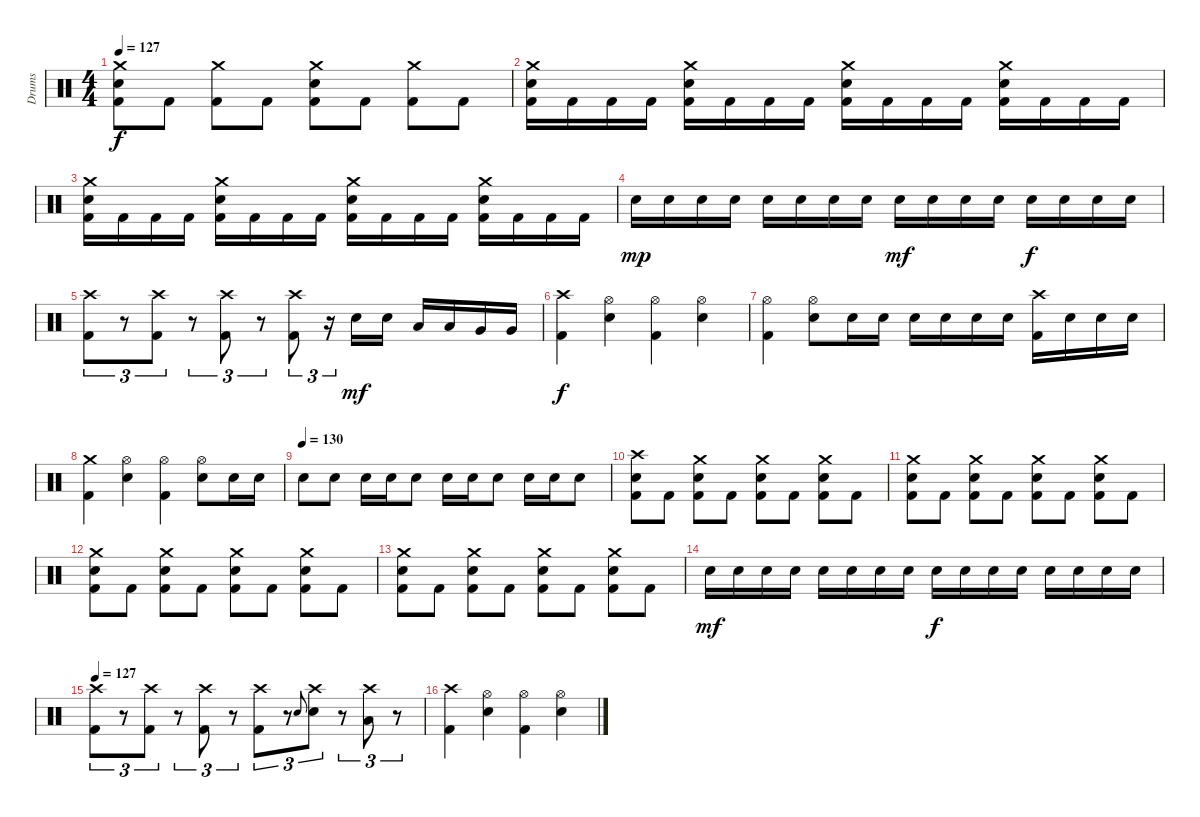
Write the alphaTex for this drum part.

\track ("Drums" "Drums") {instrument percussion}
\staff {score}
\articulation defaults
\ts (4 4)
\tempo 127
\clef neutral
\ks c
("Crash medium (hit)" "Snare (hit) 2" "Kick (hit) 2").8{dy f} "Kick (hit) 2".8 ("Crash medium (hit)" "Kick (hit) 2").8 "Kick (hit) 2".8 ("Crash medium (hit)" "Snare (hit) 2" "Kick (hit) 2").8 "Kick (hit) 2".8 ("Crash medium (hit)" "Kick (hit) 2").8 "Kick (hit) 2".8 |
("Crash medium (hit)" "Snare (hit) 2" "Kick (hit) 2").16 "Kick (hit) 2".16 "Kick (hit) 2".16 "Kick (hit) 2".16 ("Crash medium (hit)" "Snare (hit) 2" "Kick (hit) 2").16 "Kick (hit) 2".16 "Kick (hit) 2".16 "Kick (hit) 2".16 ("Crash medium (hit)" "Snare (hit) 2" "Kick (hit) 2").16 "Kick (hit) 2".16 "Kick (hit) 2".16 "Kick (hit) 2".16 ("Crash medium (hit)" "Snare (hit) 2" "Kick (hit) 2").16 "Kick (hit) 2".16 "Kick (hit) 2".16 "Kick (hit) 2".16 |
("Crash medium (hit)" "Snare (hit) 2" "Kick (hit) 2").16 "Kick (hit) 2".16 "Kick (hit) 2".16 "Kick (hit) 2".16 ("Crash medium (hit)" "Snare (hit) 2" "Kick (hit) 2").16 "Kick (hit) 2".16 "Kick (hit) 2".16 "Kick (hit) 2".16 ("Crash medium (hit)" "Snare (hit) 2" "Kick (hit) 2").16 "Kick (hit) 2".16 "Kick (hit) 2".16 "Kick (hit) 2".16 ("Crash medium (hit)" "Snare (hit) 2" "Kick (hit) 2").16 "Kick (hit) 2".16 "Kick (hit) 2".16 "Kick (hit) 2".16 |
"Snare (hit) 2".16{dy mp} "Snare (hit) 2".16 "Snare (hit) 2".16 "Snare (hit) 2".16 "Snare (hit) 2".16 "Snare (hit) 2".16 "Snare (hit) 2".16 "Snare (hit) 2".16 "Snare (hit) 2".16{dy mf} "Snare (hit) 2".16 "Snare (hit) 2".16 "Snare (hit) 2".16 "Snare (hit) 2".16{dy f} "Snare (hit) 2".16 "Snare (hit) 2".16 "Snare (hit) 2".16 |
("Crash high (hit)" "Kick (hit) 2").8{tu (3 2)} r.8{tu (3 2)} ("Crash high (hit)" "Kick (hit) 2").8{tu (3 2)} r.8{tu (3 2)} ("Crash high (hit)" "Kick (hit) 2").8{tu (3 2)} r.8{tu (3 2)} ("Crash high (hit)" "Kick (hit) 2").8{tu (3 2)} r.16{tu (3 2)} "Snare (hit) 2".16{dy mf} "Snare (hit) 2".16 "Low Tom (hit)".16 "Low Tom (hit)".16 "Very Low Tom (hit)".16 "Very Low Tom (hit)".16 |
("Crash high (hit)" "Kick (hit) 2").4{dy f} ("Hi-Hat (open)" "Snare (hit) 2").4 ("Hi-Hat (open)" "Kick (hit) 2").4 ("Hi-Hat (open)" "Snare (hit) 2").4 |
("Hi-Hat (open)" "Kick (hit) 2").4 ("Hi-Hat (open)" "Snare (hit) 2").8 "Snare (hit) 2".16 "Snare (hit) 2".16 "Snare (hit) 2".16 "Snare (hit) 2".16 "Snare (hit) 2".16 "Snare (hit) 2".16 ("Crash high (hit)" "Kick (hit) 2").16 "Snare (hit) 2".16 "Snare (hit) 2".16 "Snare (hit) 2".16 |
("Crash medium (hit)" "Kick (hit) 2").4 ("Hi-Hat (open)" "Snare (hit) 2").4 ("Hi-Hat (open)" "Kick (hit) 2").4 ("Hi-Hat (open)" "Snare (hit) 2").8 "Snare (hit) 2".16 "Snare (hit) 2".16 |
\tempo (130)
"Snare (hit) 2".8 "Snare (hit) 2".8 "Snare (hit) 2".16 "Snare (hit) 2".16 "Snare (hit) 2".8 "Snare (hit) 2".16 "Snare (hit) 2".16 "Snare (hit) 2".8 "Snare (hit) 2".16 "Snare (hit) 2".16 "Snare (hit) 2".8 |
("Crash high (hit)" "Snare (hit) 2" "Kick (hit) 2").8 "Kick (hit) 2".8 ("Crash medium (hit)" "Snare (hit) 2" "Kick (hit) 2").8 "Kick (hit) 2".8 ("Crash medium (hit)" "Snare (hit) 2" "Kick (hit) 2").8 "Kick (hit) 2".8 ("Crash medium (hit)" "Snare (hit) 2" "Kick (hit) 2").8 "Kick (hit) 2".8 |
("Crash medium (hit)" "Snare (hit) 2" "Kick (hit) 2").8 "Kick (hit) 2".8 ("Crash medium (hit)" "Snare (hit) 2" "Kick (hit) 2").8 "Kick (hit) 2".8 ("Crash medium (hit)" "Snare (hit) 2" "Kick (hit) 2").8 "Kick (hit) 2".8 ("Crash medium (hit)" "Snare (hit) 2" "Kick (hit) 2").8 "Kick (hit) 2".8 |
("Crash medium (hit)" "Snare (hit) 2" "Kick (hit) 2").8 "Kick (hit) 2".8 ("Crash medium (hit)" "Snare (hit) 2" "Kick (hit) 2").8 "Kick (hit) 2".8 ("Crash medium (hit)" "Snare (hit) 2" "Kick (hit) 2").8 "Kick (hit) 2".8 ("Crash medium (hit)" "Snare (hit) 2" "Kick (hit) 2").8 "Kick (hit) 2".8 |
("Crash medium (hit)" "Snare (hit) 2" "Kick (hit) 2").8 "Kick (hit) 2".8 ("Crash medium (hit)" "Snare (hit) 2" "Kick (hit) 2").8 "Kick (hit) 2".8 ("Crash medium (hit)" "Snare (hit) 2" "Kick (hit) 2").8 "Kick (hit) 2".8 ("Crash medium (hit)" "Snare (hit) 2" "Kick (hit) 2").8 "Kick (hit) 2".8 |
"Snare (hit) 2".16{dy mf} "Snare (hit) 2".16 "Snare (hit) 2".16 "Snare (hit) 2".16 "Snare (hit) 2".16 "Snare (hit) 2".16 "Snare (hit) 2".16 "Snare (hit) 2".16 "Snare (hit) 2".16{dy f} "Snare (hit) 2".16 "Snare (hit) 2".16 "Snare (hit) 2".16 "Snare (hit) 2".16 "Snare (hit) 2".16 "Snare (hit) 2".16 "Snare (hit) 2".16 |
\tempo 127
("Crash high (hit)" "Kick (hit) 2").8{tu (3 2)} r.8{tu (3 2)} ("Crash high (hit)" "Kick (hit) 2").8{tu (3 2)} r.8{tu (3 2)} ("Crash high (hit)" "Kick (hit) 2").8{tu (3 2)} r.8{tu (3 2)} ("Crash high (hit)" "Kick (hit) 2").8{tu (3 2)} r.8{tu (3 2)} "Snare (hit) 2".8{gr onbeat} ("Crash high (hit)" "Snare (hit) 2").8{tu (3 2)} r.8{tu (3 2)} ("Crash high (hit)" "Low Tom (hit)").8{tu (3 2)} r.8{tu (3 2)} |
("Crash high (hit)" "Kick (hit) 2").4 ("Hi-Hat (open)" "Snare (hit) 2").4 ("Hi-Hat (open)" "Kick (hit) 2").4 ("Hi-Hat (open)" "Snare (hit) 2").4
